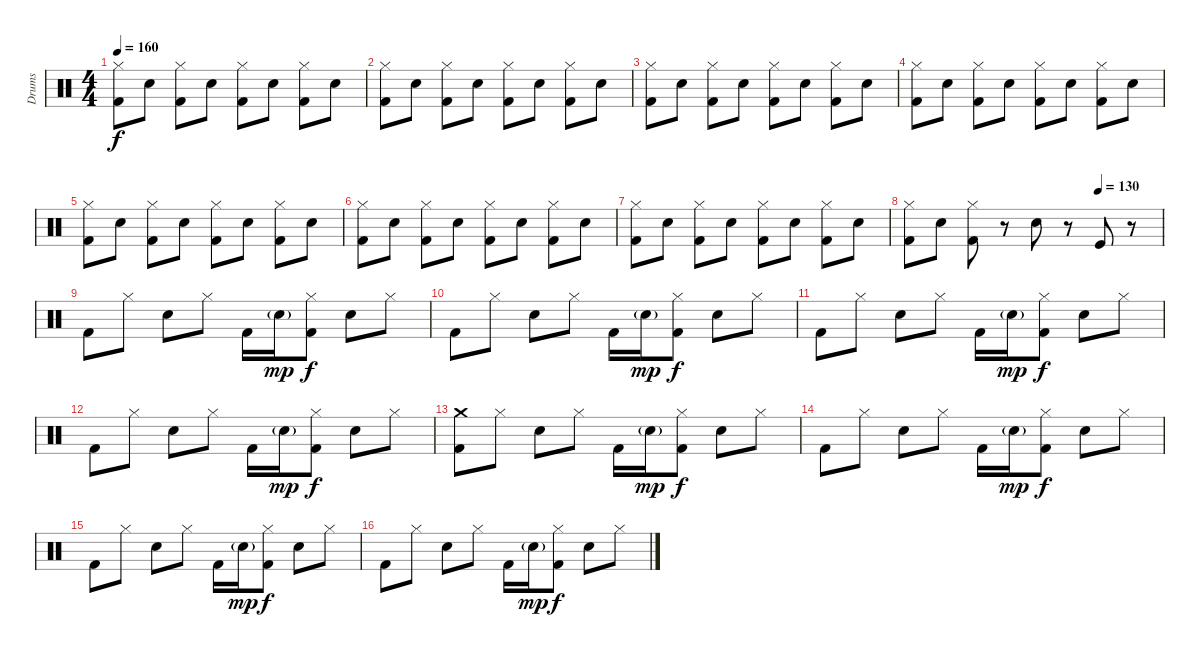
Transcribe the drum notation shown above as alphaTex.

\track ("Drums" "Drums") {instrument percussion}
\staff {score}
\articulation defaults
\ts (4 4)
\tempo 160
\clef neutral
\ks c
("Hi-Hat (closed)" "Kick (hit) 2").8{dy f} "Snare (hit) 2".8 ("Hi-Hat (closed)" "Kick (hit) 2").8 "Snare (hit) 2".8 ("Hi-Hat (closed)" "Kick (hit) 2").8 "Snare (hit) 2".8 ("Hi-Hat (closed)" "Kick (hit) 2").8 "Snare (hit) 2".8 |
("Hi-Hat (closed)" "Kick (hit) 2").8 "Snare (hit) 2".8 ("Hi-Hat (closed)" "Kick (hit) 2").8 "Snare (hit) 2".8 ("Hi-Hat (closed)" "Kick (hit) 2").8 "Snare (hit) 2".8 ("Hi-Hat (closed)" "Kick (hit) 2").8 "Snare (hit) 2".8 |
("Hi-Hat (closed)" "Kick (hit) 2").8 "Snare (hit) 2".8 ("Hi-Hat (closed)" "Kick (hit) 2").8 "Snare (hit) 2".8 ("Hi-Hat (closed)" "Kick (hit) 2").8 "Snare (hit) 2".8 ("Hi-Hat (closed)" "Kick (hit) 2").8 "Snare (hit) 2".8 |
("Hi-Hat (closed)" "Kick (hit) 2").8 "Snare (hit) 2".8 ("Hi-Hat (closed)" "Kick (hit) 2").8 "Snare (hit) 2".8 ("Hi-Hat (closed)" "Kick (hit) 2").8 "Snare (hit) 2".8 ("Hi-Hat (closed)" "Kick (hit) 2").8 "Snare (hit) 2".8 |
("Hi-Hat (closed)" "Kick (hit) 2").8 "Snare (hit) 2".8 ("Hi-Hat (closed)" "Kick (hit) 2").8 "Snare (hit) 2".8 ("Hi-Hat (closed)" "Kick (hit) 2").8 "Snare (hit) 2".8 ("Hi-Hat (closed)" "Kick (hit) 2").8 "Snare (hit) 2".8 |
("Hi-Hat (closed)" "Kick (hit) 2").8 "Snare (hit) 2".8 ("Hi-Hat (closed)" "Kick (hit) 2").8 "Snare (hit) 2".8 ("Hi-Hat (closed)" "Kick (hit) 2").8 "Snare (hit) 2".8 ("Hi-Hat (closed)" "Kick (hit) 2").8 "Snare (hit) 2".8 |
("Hi-Hat (closed)" "Kick (hit) 2").8 "Snare (hit) 2".8 ("Hi-Hat (closed)" "Kick (hit) 2").8 "Snare (hit) 2".8 ("Hi-Hat (closed)" "Kick (hit) 2").8 "Snare (hit) 2".8 ("Hi-Hat (closed)" "Kick (hit) 2").8 "Snare (hit) 2".8 |
\tempo (130 0.75)
("Hi-Hat (closed)" "Kick (hit) 2").8 "Snare (hit) 2".8 ("Hi-Hat (closed)" "Kick (hit) 2").8 r.8 "Snare (hit) 2".8 r.8 "Kick (hit)".8 r.8 |
"Kick (hit) 2".8 "Hi-Hat (closed)".8 "Snare (hit) 2".8 "Hi-Hat (closed)".8 "Kick (hit) 2".16 "Snare (hit) 2"{g}.16{dy mp} ("Hi-Hat (closed)" "Kick (hit) 2").8{dy f} "Snare (hit) 2".8 "Hi-Hat (closed)".8 |
"Kick (hit) 2".8 "Hi-Hat (closed)".8 "Snare (hit) 2".8 "Hi-Hat (closed)".8 "Kick (hit) 2".16 "Snare (hit) 2"{g}.16{dy mp} ("Hi-Hat (closed)" "Kick (hit) 2").8{dy f} "Snare (hit) 2".8 "Hi-Hat (closed)".8 |
"Kick (hit) 2".8 "Hi-Hat (closed)".8 "Snare (hit) 2".8 "Hi-Hat (closed)".8 "Kick (hit) 2".16 "Snare (hit) 2"{g}.16{dy mp} ("Hi-Hat (closed)" "Kick (hit) 2").8{dy f} "Snare (hit) 2".8 "Hi-Hat (closed)".8 |
"Kick (hit) 2".8 "Hi-Hat (closed)".8 "Snare (hit) 2".8 "Hi-Hat (closed)".8 "Kick (hit) 2".16 "Snare (hit) 2"{g}.16{dy mp} ("Hi-Hat (closed)" "Kick (hit) 2").8{dy f} "Snare (hit) 2".8 "Hi-Hat (closed)".8 |
("Crash medium (hit)" "Kick (hit) 2").8 "Hi-Hat (closed)".8 "Snare (hit) 2".8 "Hi-Hat (closed)".8 "Kick (hit) 2".16 "Snare (hit) 2"{g}.16{dy mp} ("Hi-Hat (closed)" "Kick (hit) 2").8{dy f} "Snare (hit) 2".8 "Hi-Hat (closed)".8 |
"Kick (hit) 2".8 "Hi-Hat (closed)".8 "Snare (hit) 2".8 "Hi-Hat (closed)".8 "Kick (hit) 2".16 "Snare (hit) 2"{g}.16{dy mp} ("Hi-Hat (closed)" "Kick (hit) 2").8{dy f} "Snare (hit) 2".8 "Hi-Hat (closed)".8 |
"Kick (hit) 2".8 "Hi-Hat (closed)".8 "Snare (hit) 2".8 "Hi-Hat (closed)".8 "Kick (hit) 2".16 "Snare (hit) 2"{g}.16{dy mp} ("Hi-Hat (closed)" "Kick (hit) 2").8{dy f} "Snare (hit) 2".8 "Hi-Hat (closed)".8 |
"Kick (hit) 2".8 "Hi-Hat (closed)".8 "Snare (hit) 2".8 "Hi-Hat (closed)".8 "Kick (hit) 2".16 "Snare (hit) 2"{g}.16{dy mp} ("Hi-Hat (closed)" "Kick (hit) 2").8{dy f} "Snare (hit) 2".8 "Hi-Hat (closed)".8
